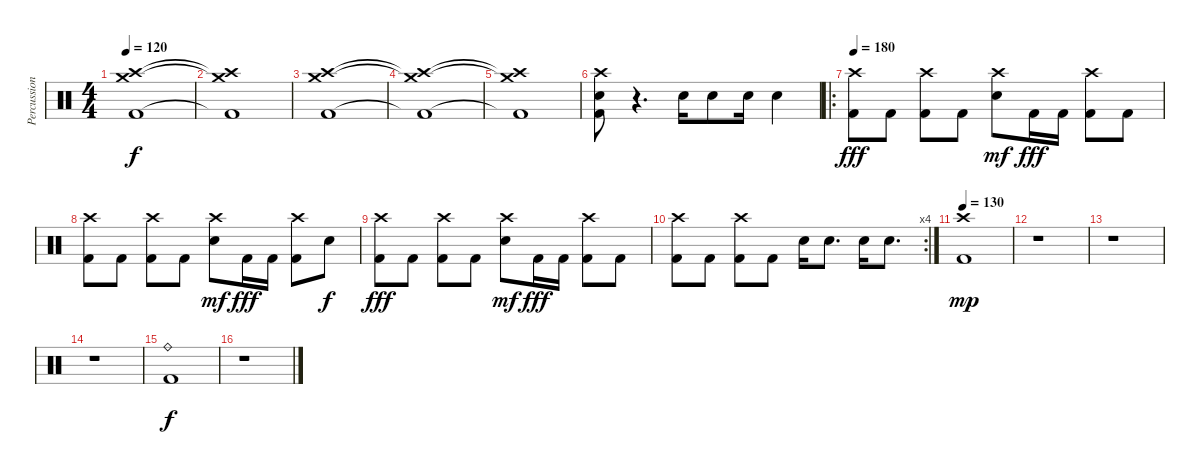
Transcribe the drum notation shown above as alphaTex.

\track ("Percussion" "Percussion") {instrument percussion}
\staff {score}
\articulation defaults
\ts (4 4)
\tempo 120
\clef neutral
\ks c
("Crash high (hit)"{t} "Crash medium (hit)"{t} "Kick (hit) 2"{t}).1{dy f} |
("Crash high (hit)"{t} "Crash medium (hit)"{t} "Kick (hit) 2"{t}).1 |
("Crash high (hit)" "Crash medium (hit)" "Kick (hit) 2").1 |
("Crash high (hit)"{t} "Crash medium (hit)"{t} "Kick (hit) 2"{t}).1 |
("Crash high (hit)"{t} "Crash medium (hit)"{t} "Kick (hit) 2"{t}).1 |
("Crash high (hit)" "Electric Snare (hit)" "Kick (hit) 2").8 r.4{d} "Electric Snare (hit)".16 "Electric Snare (hit)".8 "Electric Snare (hit)".16 "Electric Snare (hit)".4 |
\ro
\tempo 180
("Crash high (hit)" "Kick (hit) 2").8{dy fff} "Kick (hit) 2".8 ("Crash high (hit)" "Kick (hit) 2").8 "Kick (hit) 2".8 ("Crash high (hit)" "Electric Snare (hit)").8{dy mf} "Kick (hit) 2".16{dy fff} "Kick (hit) 2".16 ("Crash high (hit)" "Kick (hit) 2").8 "Kick (hit) 2".8 |
("Crash high (hit)" "Kick (hit) 2").8 "Kick (hit) 2".8 ("Crash high (hit)" "Kick (hit) 2").8 "Kick (hit) 2".8 ("Crash high (hit)" "Electric Snare (hit)").8{dy mf} "Kick (hit) 2".16{dy fff} "Kick (hit) 2".16 ("Crash high (hit)" "Kick (hit) 2").8 "Electric Snare (hit)".8{dy f} |
("Crash high (hit)" "Kick (hit) 2").8{dy fff} "Kick (hit) 2".8 ("Crash high (hit)" "Kick (hit) 2").8 "Kick (hit) 2".8 ("Crash high (hit)" "Electric Snare (hit)").8{dy mf} "Kick (hit) 2".16{dy fff} "Kick (hit) 2".16 ("Crash high (hit)" "Kick (hit) 2").8 "Kick (hit) 2".8 |
\rc 4
("Crash high (hit)" "Kick (hit) 2").8 "Kick (hit) 2".8 ("Crash high (hit)" "Kick (hit) 2").8 "Kick (hit) 2".8 "Electric Snare (hit)".16 "Electric Snare (hit)".8{d} "Electric Snare (hit)".16 "Electric Snare (hit)".8{d} |
\tempo 130
("Crash high (hit)" "Kick (hit) 2").1{dy mp} |
r.1 |
r.1 |
r.1 |
("Ride (bell)" "Kick (hit) 2").1{dy f} |
r.1
